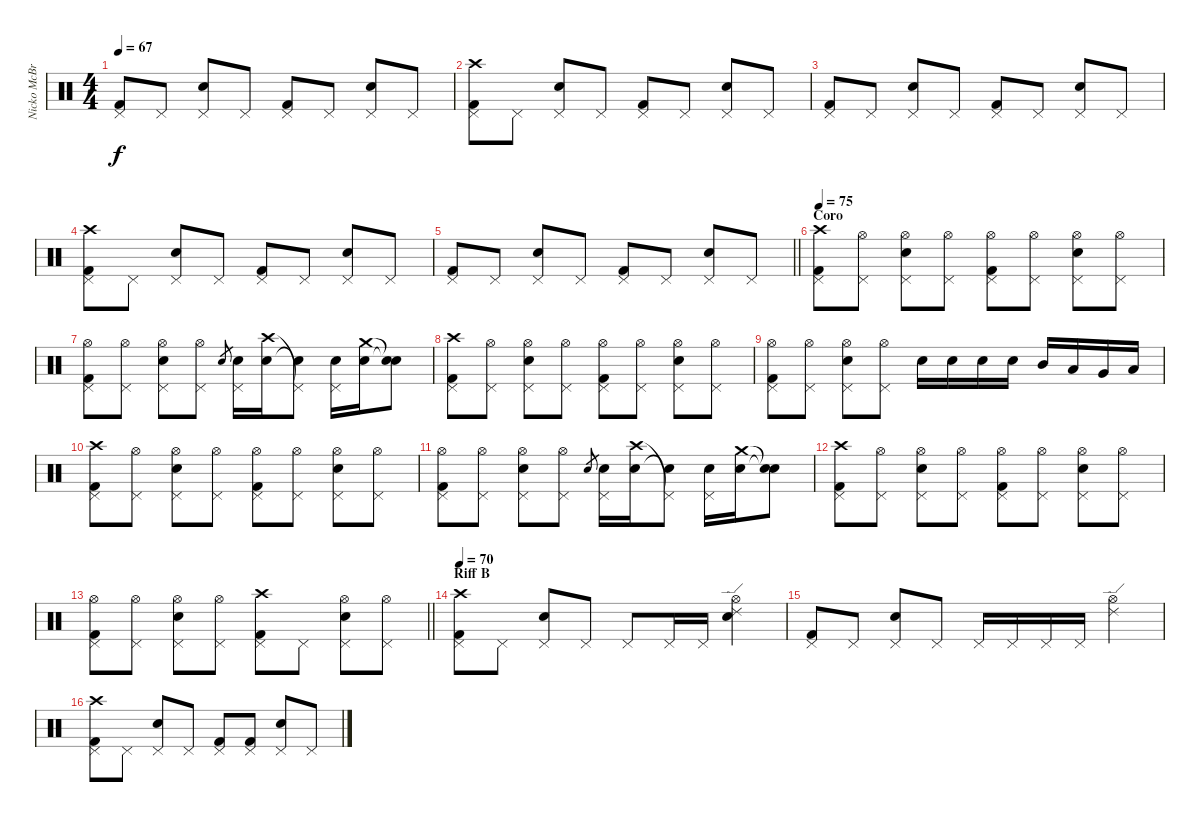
\track ("Nicko McBrain" "Nicko McBr") {instrument percussion}
\staff {score}
\articulation defaults
\ts (4 4)
\tempo 67
\clef neutral
\ks c
("Kick (hit) 2" "Pedal Hi-Hat (hit)").8{dy f} "Pedal Hi-Hat (hit)".8 ("Snare (hit) 2" "Pedal Hi-Hat (hit)").8 "Pedal Hi-Hat (hit)".8 ("Kick (hit) 2" "Pedal Hi-Hat (hit)").8 "Pedal Hi-Hat (hit)".8 ("Snare (hit) 2" "Pedal Hi-Hat (hit)").8 "Pedal Hi-Hat (hit)".8 |
("Kick (hit) 2" "Pedal Hi-Hat (hit)" "Crash high (hit)").8 "Pedal Hi-Hat (hit)".8 ("Snare (hit) 2" "Pedal Hi-Hat (hit)").8 "Pedal Hi-Hat (hit)".8 ("Kick (hit) 2" "Pedal Hi-Hat (hit)").8 "Pedal Hi-Hat (hit)".8 ("Snare (hit) 2" "Pedal Hi-Hat (hit)").8 "Pedal Hi-Hat (hit)".8 |
("Kick (hit) 2" "Pedal Hi-Hat (hit)").8 "Pedal Hi-Hat (hit)".8 ("Snare (hit) 2" "Pedal Hi-Hat (hit)").8 "Pedal Hi-Hat (hit)".8 ("Kick (hit) 2" "Pedal Hi-Hat (hit)").8 "Pedal Hi-Hat (hit)".8 ("Snare (hit) 2" "Pedal Hi-Hat (hit)").8 "Pedal Hi-Hat (hit)".8 |
("Kick (hit) 2" "Pedal Hi-Hat (hit)" "Crash high (hit)").8 "Pedal Hi-Hat (hit)".8 ("Snare (hit) 2" "Pedal Hi-Hat (hit)").8 "Pedal Hi-Hat (hit)".8 ("Kick (hit) 2" "Pedal Hi-Hat (hit)").8 "Pedal Hi-Hat (hit)".8 ("Snare (hit) 2" "Pedal Hi-Hat (hit)").8 "Pedal Hi-Hat (hit)".8 |
\barLineRight lightlight
("Kick (hit) 2" "Pedal Hi-Hat (hit)").8 "Pedal Hi-Hat (hit)".8 ("Snare (hit) 2" "Pedal Hi-Hat (hit)").8 "Pedal Hi-Hat (hit)".8 ("Kick (hit) 2" "Pedal Hi-Hat (hit)").8 "Pedal Hi-Hat (hit)".8 ("Snare (hit) 2" "Pedal Hi-Hat (hit)").8 "Pedal Hi-Hat (hit)".8 |
\section ("" "Coro")
\tempo 75
("Kick (hit) 2" "Pedal Hi-Hat (hit)" "Crash high (hit)").8 ("Pedal Hi-Hat (hit)" "Hi-Hat (open)").8 ("Snare (hit) 2" "Pedal Hi-Hat (hit)" "Hi-Hat (open)").8 ("Pedal Hi-Hat (hit)" "Hi-Hat (open)").8 ("Kick (hit) 2" "Pedal Hi-Hat (hit)" "Hi-Hat (open)").8 ("Pedal Hi-Hat (hit)" "Hi-Hat (open)").8 ("Snare (hit) 2" "Pedal Hi-Hat (hit)" "Hi-Hat (open)").8 ("Pedal Hi-Hat (hit)" "Hi-Hat (open)").8 |
("Kick (hit) 2" "Pedal Hi-Hat (hit)" "Hi-Hat (open)").8 ("Pedal Hi-Hat (hit)" "Hi-Hat (open)").8 ("Snare (hit) 2" "Pedal Hi-Hat (hit)" "Hi-Hat (open)").8 ("Pedal Hi-Hat (hit)" "Hi-Hat (open)").8 "Snare (hit) 2".8{gr} ("Snare (hit) 2" "Pedal Hi-Hat (hit)").16 ("Snare (hit) 2" "Crash high (hit)").16 ("Snare (hit) 2"{t} "Pedal Hi-Hat (hit)"{t}).8 ("Snare (hit) 2" "Pedal Hi-Hat (hit)").16 ("Snare (hit) 2" "Crash medium (hit)").16 ("Snare (hit)"{t} "Snare (hit)"{t}).8 |
("Kick (hit) 2" "Pedal Hi-Hat (hit)" "Crash high (hit)").8 ("Pedal Hi-Hat (hit)" "Hi-Hat (open)").8 ("Snare (hit) 2" "Pedal Hi-Hat (hit)" "Hi-Hat (open)").8 ("Pedal Hi-Hat (hit)" "Hi-Hat (open)").8 ("Kick (hit) 2" "Pedal Hi-Hat (hit)" "Hi-Hat (open)").8 ("Pedal Hi-Hat (hit)" "Hi-Hat (open)").8 ("Snare (hit) 2" "Pedal Hi-Hat (hit)" "Hi-Hat (open)").8 ("Pedal Hi-Hat (hit)" "Hi-Hat (open)").8 |
("Kick (hit) 2" "Pedal Hi-Hat (hit)" "Hi-Hat (open)").8 ("Pedal Hi-Hat (hit)" "Hi-Hat (open)").8 ("Snare (hit) 2" "Pedal Hi-Hat (hit)" "Hi-Hat (open)").8 ("Pedal Hi-Hat (hit)" "Hi-Hat (open)").8 "Snare (hit) 2".16 "Snare (hit) 2".16 "Snare (hit) 2".16 "Snare (hit) 2".16 "Mid Tom (hit)".16 "Low Tom (hit)".16 "Very Low Tom (hit)".16 "Low Floor Tom (hit)".16 |
("Kick (hit) 2" "Pedal Hi-Hat (hit)" "Crash high (hit)").8 ("Pedal Hi-Hat (hit)" "Hi-Hat (open)").8 ("Snare (hit) 2" "Pedal Hi-Hat (hit)" "Hi-Hat (open)").8 ("Pedal Hi-Hat (hit)" "Hi-Hat (open)").8 ("Kick (hit) 2" "Pedal Hi-Hat (hit)" "Hi-Hat (open)").8 ("Pedal Hi-Hat (hit)" "Hi-Hat (open)").8 ("Snare (hit) 2" "Pedal Hi-Hat (hit)" "Hi-Hat (open)").8 ("Pedal Hi-Hat (hit)" "Hi-Hat (open)").8 |
("Kick (hit) 2" "Pedal Hi-Hat (hit)" "Hi-Hat (open)").8 ("Pedal Hi-Hat (hit)" "Hi-Hat (open)").8 ("Snare (hit) 2" "Pedal Hi-Hat (hit)" "Hi-Hat (open)").8 ("Pedal Hi-Hat (hit)" "Hi-Hat (open)").8 "Snare (hit) 2".8{gr} ("Snare (hit) 2" "Pedal Hi-Hat (hit)").16 ("Snare (hit) 2" "Crash high (hit)").16 ("Snare (hit) 2"{t} "Pedal Hi-Hat (hit)"{t}).8 ("Snare (hit) 2" "Pedal Hi-Hat (hit)").16 ("Snare (hit) 2" "Crash medium (hit)").16 ("Snare (hit)"{t} "Snare (hit)"{t}).8 |
("Kick (hit) 2" "Pedal Hi-Hat (hit)" "Crash high (hit)").8 ("Pedal Hi-Hat (hit)" "Hi-Hat (open)").8 ("Snare (hit) 2" "Pedal Hi-Hat (hit)" "Hi-Hat (open)").8 ("Pedal Hi-Hat (hit)" "Hi-Hat (open)").8 ("Kick (hit) 2" "Pedal Hi-Hat (hit)" "Hi-Hat (open)").8 ("Pedal Hi-Hat (hit)" "Hi-Hat (open)").8 ("Snare (hit) 2" "Pedal Hi-Hat (hit)" "Hi-Hat (open)").8 ("Pedal Hi-Hat (hit)" "Hi-Hat (open)").8 |
\barLineRight lightlight
("Kick (hit) 2" "Pedal Hi-Hat (hit)" "Hi-Hat (open)").8 ("Pedal Hi-Hat (hit)" "Hi-Hat (open)").8 ("Snare (hit) 2" "Pedal Hi-Hat (hit)" "Hi-Hat (open)").8 ("Pedal Hi-Hat (hit)" "Hi-Hat (open)").8 ("Kick (hit) 2" "Pedal Hi-Hat (hit)" "Crash high (hit)").8 "Pedal Hi-Hat (hit)".8 ("Snare (hit) 2" "Pedal Hi-Hat (hit)" "Hi-Hat (open)").8 ("Pedal Hi-Hat (hit)" "Hi-Hat (open)").8 |
\section ("" "Riff B")
\tempo 70
("Kick (hit) 2" "Pedal Hi-Hat (hit)" "Crash high (hit)").8 "Pedal Hi-Hat (hit)".8 ("Snare (hit) 2" "Pedal Hi-Hat (hit)").8 "Pedal Hi-Hat (hit)".8 "Pedal Hi-Hat (hit)".8 "Pedal Hi-Hat (hit)".16 "Pedal Hi-Hat (hit)".16 ("Hi-Hat (open)" "Snare (hit) 2" "Ride (edge) 2").4 |
("Kick (hit) 2" "Pedal Hi-Hat (hit)").8 "Pedal Hi-Hat (hit)".8 ("Snare (hit) 2" "Pedal Hi-Hat (hit)").8 "Pedal Hi-Hat (hit)".8 "Pedal Hi-Hat (hit)".16 "Pedal Hi-Hat (hit)".16 "Pedal Hi-Hat (hit)".16 "Pedal Hi-Hat (hit)".16 ("Hi-Hat (open)" "Ride (edge) 2").4 |
("Kick (hit) 2" "Pedal Hi-Hat (hit)" "Crash high (hit)").8 "Pedal Hi-Hat (hit)".8 ("Snare (hit) 2" "Pedal Hi-Hat (hit)").8 "Pedal Hi-Hat (hit)".8 ("Kick (hit) 2" "Pedal Hi-Hat (hit)").8 ("Pedal Hi-Hat (hit)" "Kick (hit) 2").8 ("Snare (hit) 2" "Pedal Hi-Hat (hit)").8 "Pedal Hi-Hat (hit)".8
